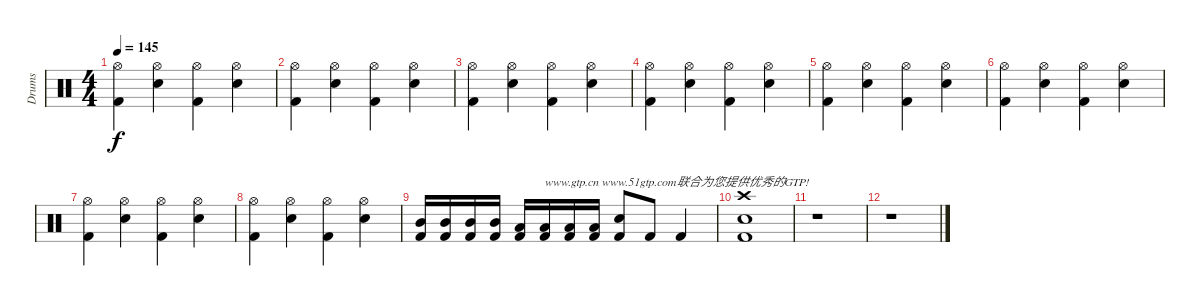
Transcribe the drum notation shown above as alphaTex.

\track ("Drums" "Drums") {instrument percussion}
\staff {score}
\articulation defaults
\ts (4 4)
\tempo 145
\clef neutral
\ks c
("Kick (hit) 2" "Hi-Hat (open)").4{dy f} ("Electric Snare (hit)" "Hi-Hat (open)").4 ("Kick (hit) 2" "Hi-Hat (open)").4 ("Electric Snare (hit)" "Hi-Hat (open)").4 |
("Kick (hit) 2" "Hi-Hat (open)").4 ("Electric Snare (hit)" "Hi-Hat (open)").4 ("Kick (hit) 2" "Hi-Hat (open)").4 ("Electric Snare (hit)" "Hi-Hat (open)").4 |
("Kick (hit) 2" "Hi-Hat (open)").4 ("Electric Snare (hit)" "Hi-Hat (open)").4 ("Kick (hit) 2" "Hi-Hat (open)").4 ("Electric Snare (hit)" "Hi-Hat (open)").4 |
("Kick (hit) 2" "Hi-Hat (open)").4 ("Electric Snare (hit)" "Hi-Hat (open)").4 ("Kick (hit) 2" "Hi-Hat (open)").4 ("Electric Snare (hit)" "Hi-Hat (open)").4 |
("Kick (hit) 2" "Hi-Hat (open)").4 ("Electric Snare (hit)" "Hi-Hat (open)").4 ("Kick (hit) 2" "Hi-Hat (open)").4 ("Electric Snare (hit)" "Hi-Hat (open)").4 |
("Kick (hit) 2" "Hi-Hat (open)").4 ("Electric Snare (hit)" "Hi-Hat (open)").4 ("Kick (hit) 2" "Hi-Hat (open)").4 ("Electric Snare (hit)" "Hi-Hat (open)").4 |
("Kick (hit) 2" "Hi-Hat (open)").4 ("Electric Snare (hit)" "Hi-Hat (open)").4 ("Kick (hit) 2" "Hi-Hat (open)").4 ("Electric Snare (hit)" "Hi-Hat (open)").4 |
("Kick (hit) 2" "Hi-Hat (open)").4 ("Electric Snare (hit)" "Hi-Hat (open)").4 ("Kick (hit) 2" "Hi-Hat (open)").4 ("Electric Snare (hit)" "Hi-Hat (open)").4 |
("Kick (hit) 2" "Mid Tom (hit)").16 ("Kick (hit) 2" "Mid Tom (hit)").16 ("Kick (hit) 2" "Mid Tom (hit)").16 ("Kick (hit) 2" "Mid Tom (hit)").16 ("Kick (hit) 2" "Low Tom (hit)").16 ("Kick (hit) 2" "Low Tom (hit)").16{txt "www.gtp.cn www.51gtp.com联合为您提供优秀的GTP!"} ("Kick (hit) 2" "Low Tom (hit)").16 ("Kick (hit) 2" "Low Tom (hit)").16 ("Kick (hit) 2" "Electric Snare (hit)").8 "Kick (hit) 2".8 "Kick (hit) 2".4 |
("Kick (hit) 2" "Crash high (hit)" "Electric Snare (hit)").1 |
r.1 |
r.1
